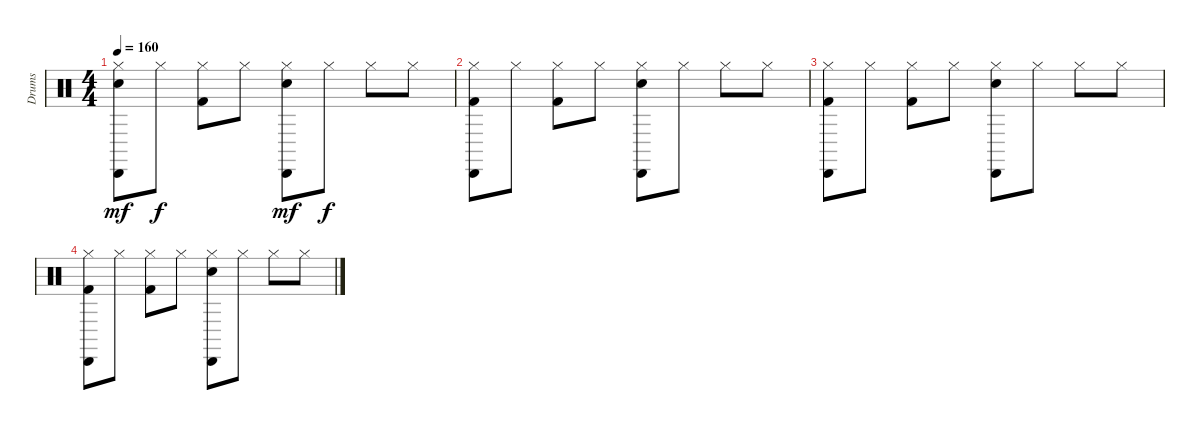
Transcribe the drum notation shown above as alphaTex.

\track ("Drums" "Drums") {instrument percussion}
\staff {score}
\articulation defaults
\ts (4 4)
\tempo 160
\clef neutral
\ks c
("Hi-Hat (closed)" "Cabasa (hit)" "Electric Snare (hit)").8{dy mf volume 0} "Hi-Hat (closed)".8{dy f} ("Hi-Hat (closed)" "Kick (hit) 2").8 "Hi-Hat (closed)".8 ("Hi-Hat (closed)" "Cabasa (hit)" "Electric Snare (hit)").8{dy mf} "Hi-Hat (closed)".8{dy f} "Hi-Hat (closed)".8 "Hi-Hat (closed)".8 |
("Hi-Hat (closed)" "Cabasa (hit)" "Kick (hit) 2").8 "Hi-Hat (closed)".8 ("Hi-Hat (closed)" "Kick (hit) 2").8 "Hi-Hat (closed)".8 ("Hi-Hat (closed)" "Cabasa (hit)" "Electric Snare (hit)").8 "Hi-Hat (closed)".8 "Hi-Hat (closed)".8 "Hi-Hat (closed)".8 |
("Hi-Hat (closed)" "Cabasa (hit)" "Kick (hit) 2").8 "Hi-Hat (closed)".8 ("Hi-Hat (closed)" "Kick (hit) 2").8 "Hi-Hat (closed)".8 ("Hi-Hat (closed)" "Cabasa (hit)" "Electric Snare (hit)").8 "Hi-Hat (closed)".8 "Hi-Hat (closed)".8 "Hi-Hat (closed)".8 |
("Hi-Hat (closed)" "Cabasa (hit)" "Kick (hit) 2").8 "Hi-Hat (closed)".8 ("Hi-Hat (closed)" "Kick (hit) 2").8 "Hi-Hat (closed)".8 ("Hi-Hat (closed)" "Cabasa (hit)" "Electric Snare (hit)").8 "Hi-Hat (closed)".8 "Hi-Hat (closed)".8 "Hi-Hat (closed)".8
